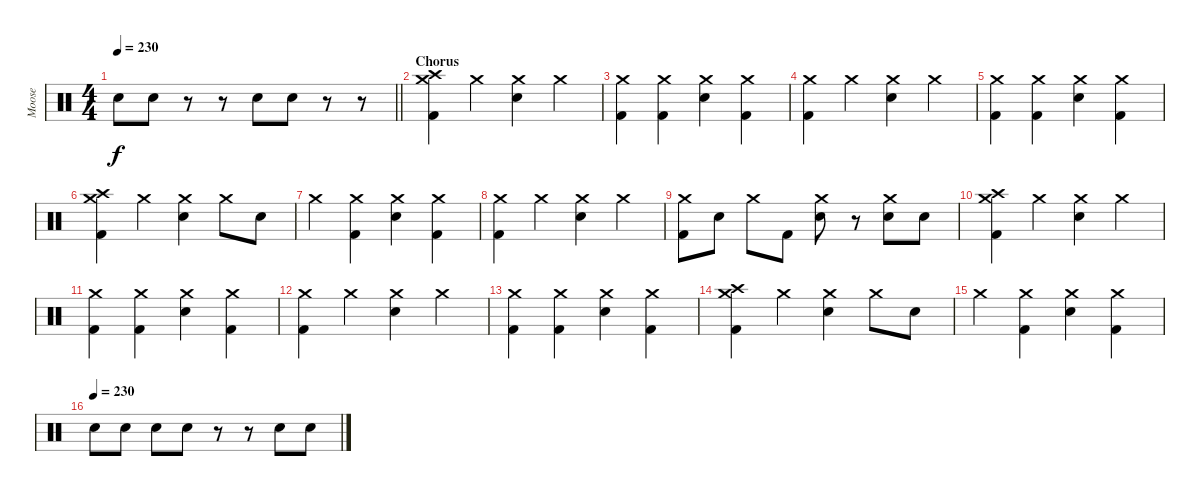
\track ("Moose" "Moose") {instrument percussion}
\staff {score}
\articulation defaults
\ts (4 4)
\tempo 230
\clef neutral
\barLineRight lightlight
\ks c "Snare (hit) 2".8{dy f} "Snare (hit) 2".8
r.8 r.8 "Snare (hit) 2".8 "Snare (hit) 2".8 r.8 r.8 |
\section ("" "Chorus")
("Crash high (hit)" "Crash medium (hit)" "Kick (hit) 2").4 "Crash medium (hit)".4 ("Crash medium (hit)" "Snare (hit) 2").4 "Crash medium (hit)".4 |
("Crash medium (hit)" "Kick (hit) 2").4 ("Crash medium (hit)" "Kick (hit) 2").4 ("Crash medium (hit)" "Snare (hit) 2").4 ("Crash medium (hit)" "Kick (hit) 2").4 |
("Crash medium (hit)" "Kick (hit) 2").4 "Crash medium (hit)".4 ("Crash medium (hit)" "Snare (hit) 2").4 "Crash medium (hit)".4 |
("Crash medium (hit)" "Kick (hit) 2").4 ("Crash medium (hit)" "Kick (hit) 2").4 ("Crash medium (hit)" "Snare (hit) 2").4 ("Crash medium (hit)" "Kick (hit) 2").4 |
("Crash high (hit)" "Crash medium (hit)" "Kick (hit) 2").4 "Crash medium (hit)".4 ("Crash medium (hit)" "Snare (hit) 2").4 "Crash medium (hit)".8 "Snare (hit) 2".8 |
"Crash medium (hit)".4 ("Crash medium (hit)" "Kick (hit) 2").4 ("Crash medium (hit)" "Snare (hit) 2").4 ("Crash medium (hit)" "Kick (hit) 2").4 |
("Crash medium (hit)" "Kick (hit) 2").4 "Crash medium (hit)".4 ("Crash medium (hit)" "Snare (hit) 2").4 "Crash medium (hit)".4 |
("Crash medium (hit)" "Kick (hit) 2").8 "Snare (hit) 2".8 "Crash medium (hit)".8 "Kick (hit) 2".8 ("Crash medium (hit)" "Snare (hit) 2").8 r.8 ("Crash medium (hit)" "Snare (hit) 2").8 "Snare (hit) 2".8 |
("Crash high (hit)" "Crash medium (hit)" "Kick (hit) 2").4 "Crash medium (hit)".4 ("Crash medium (hit)" "Snare (hit) 2").4 "Crash medium (hit)".4 |
("Crash medium (hit)" "Kick (hit) 2").4 ("Crash medium (hit)" "Kick (hit) 2").4 ("Crash medium (hit)" "Snare (hit) 2").4 ("Crash medium (hit)" "Kick (hit) 2").4 |
("Crash medium (hit)" "Kick (hit) 2").4 "Crash medium (hit)".4 ("Crash medium (hit)" "Snare (hit) 2").4 "Crash medium (hit)".4 |
("Crash medium (hit)" "Kick (hit) 2").4 ("Crash medium (hit)" "Kick (hit) 2").4 ("Crash medium (hit)" "Snare (hit) 2").4 ("Crash medium (hit)" "Kick (hit) 2").4 |
("Crash high (hit)" "Crash medium (hit)" "Kick (hit) 2").4 "Crash medium (hit)".4 ("Crash medium (hit)" "Snare (hit) 2").4 "Crash medium (hit)".8 "Snare (hit) 2".8 |
"Crash medium (hit)".4 ("Crash medium (hit)" "Kick (hit) 2").4 ("Crash medium (hit)" "Snare (hit) 2").4 ("Crash medium (hit)" "Kick (hit) 2").4 |
\tempo (230)
"Snare (hit) 2".8 "Snare (hit) 2".8 "Snare (hit) 2".8 "Snare (hit) 2".8 r.8 r.8 "Snare (hit) 2".8 "Snare (hit) 2".8
